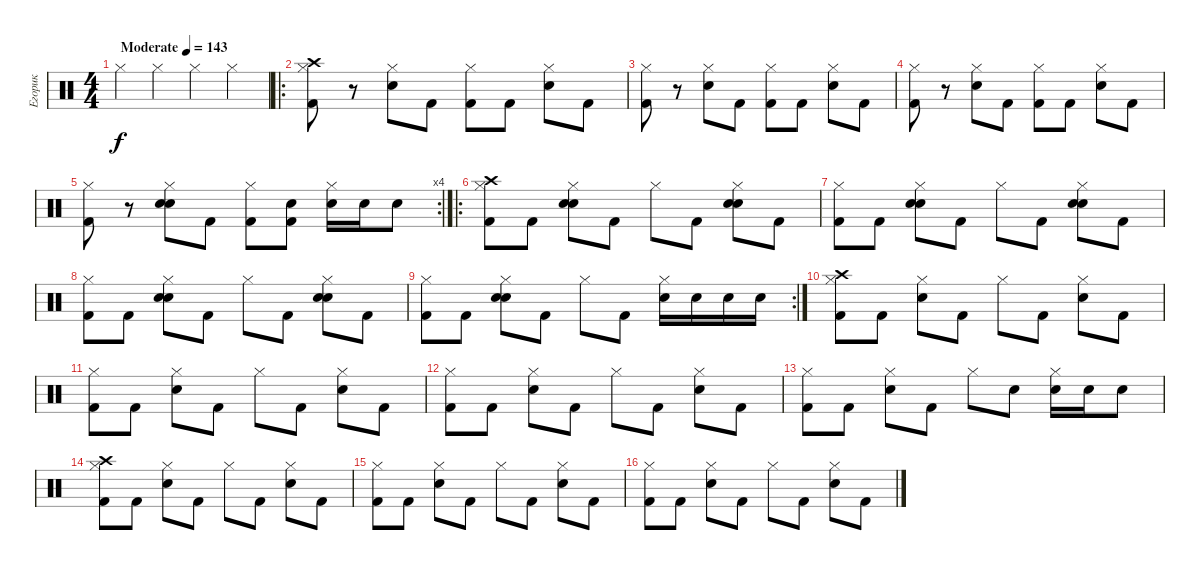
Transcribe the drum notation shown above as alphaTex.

\track ("Егорик" "Егорик") {instrument percussion}
\staff {score}
\articulation defaults
\ts (4 4)
\tempo (143 "Moderate")
\clef neutral
\ks c "Hi-Hat (closed)".4{dy f} "Hi-Hat (closed)".4 "Hi-Hat (closed)".4 "Hi-Hat (closed)".4
|
\ro
("Hi-Hat (closed)" "Crash high (hit)" "Kick (hit) 2").8 r.8 ("Hi-Hat (closed)" "Electric Snare (hit)").8 "Kick (hit) 2".8 ("Hi-Hat (closed)" "Kick (hit) 2").8 "Kick (hit) 2".8 ("Hi-Hat (closed)" "Electric Snare (hit)").8 "Kick (hit) 2".8 |
("Hi-Hat (closed)" "Kick (hit) 2").8 r.8 ("Hi-Hat (closed)" "Electric Snare (hit)").8 "Kick (hit) 2".8 ("Hi-Hat (closed)" "Kick (hit) 2").8 "Kick (hit) 2".8 ("Hi-Hat (closed)" "Electric Snare (hit)").8 "Kick (hit) 2".8 |
("Hi-Hat (closed)" "Kick (hit) 2").8 r.8 ("Hi-Hat (closed)" "Electric Snare (hit)").8 "Kick (hit) 2".8 ("Hi-Hat (closed)" "Kick (hit) 2").8 "Kick (hit) 2".8 ("Hi-Hat (closed)" "Electric Snare (hit)").8 "Kick (hit) 2".8 |
\rc 4
("Hi-Hat (closed)" "Kick (hit) 2").8 r.8 ("Hi-Hat (closed)" "Snare (hit) 2" "Electric Snare (hit)").8 "Kick (hit) 2".8 ("Hi-Hat (closed)" "Kick (hit) 2").8 ("Kick (hit) 2" "Electric Snare (hit)").8 ("Hi-Hat (closed)" "Electric Snare (hit)").16 "Electric Snare (hit)".16 "Electric Snare (hit)".8 |
\ro
("Hi-Hat (closed)" "Crash high (hit)" "Kick (hit) 2").8 "Kick (hit) 2".8 ("Hi-Hat (closed)" "Snare (hit) 2" "Electric Snare (hit)").8 "Kick (hit) 2".8 "Hi-Hat (closed)".8 "Kick (hit) 2".8 ("Hi-Hat (closed)" "Snare (hit) 2" "Electric Snare (hit)").8 "Kick (hit) 2".8 |
("Hi-Hat (closed)" "Kick (hit) 2").8 "Kick (hit) 2".8 ("Hi-Hat (closed)" "Snare (hit) 2" "Electric Snare (hit)").8 "Kick (hit) 2".8 "Hi-Hat (closed)".8 "Kick (hit) 2".8 ("Hi-Hat (closed)" "Snare (hit) 2" "Electric Snare (hit)").8 "Kick (hit) 2".8 |
("Hi-Hat (closed)" "Kick (hit) 2").8 "Kick (hit) 2".8 ("Hi-Hat (closed)" "Snare (hit) 2" "Electric Snare (hit)").8 "Kick (hit) 2".8 "Hi-Hat (closed)".8 "Kick (hit) 2".8 ("Hi-Hat (closed)" "Snare (hit) 2" "Electric Snare (hit)").8 "Kick (hit) 2".8 |
\rc 2
("Hi-Hat (closed)" "Kick (hit) 2").8 "Kick (hit) 2".8 ("Hi-Hat (closed)" "Snare (hit) 2" "Electric Snare (hit)").8 "Kick (hit) 2".8 "Hi-Hat (closed)".8 "Kick (hit) 2".8 ("Hi-Hat (closed)" "Electric Snare (hit)").16 "Electric Snare (hit)".16 "Electric Snare (hit)".16 "Electric Snare (hit)".16 |
("Hi-Hat (closed)" "Crash high (hit)" "Kick (hit) 2").8 "Kick (hit) 2".8 ("Hi-Hat (closed)" "Electric Snare (hit)").8 "Kick (hit) 2".8 "Hi-Hat (closed)".8 "Kick (hit) 2".8 ("Hi-Hat (closed)" "Electric Snare (hit)").8 "Kick (hit) 2".8 |
("Hi-Hat (closed)" "Kick (hit) 2").8 "Kick (hit) 2".8 ("Hi-Hat (closed)" "Electric Snare (hit)").8 "Kick (hit) 2".8 "Hi-Hat (closed)".8 "Kick (hit) 2".8 ("Hi-Hat (closed)" "Electric Snare (hit)").8 "Kick (hit) 2".8 |
("Hi-Hat (closed)" "Kick (hit) 2").8 "Kick (hit) 2".8 ("Hi-Hat (closed)" "Electric Snare (hit)").8 "Kick (hit) 2".8 "Hi-Hat (closed)".8 "Kick (hit) 2".8 ("Hi-Hat (closed)" "Electric Snare (hit)").8 "Kick (hit) 2".8 |
("Hi-Hat (closed)" "Kick (hit) 2").8 "Kick (hit) 2".8 ("Hi-Hat (closed)" "Electric Snare (hit)").8 "Kick (hit) 2".8 "Hi-Hat (closed)".8 "Electric Snare (hit)".8 ("Hi-Hat (closed)" "Electric Snare (hit)").16 "Electric Snare (hit)".16 "Electric Snare (hit)".8 |
("Hi-Hat (closed)" "Crash high (hit)" "Kick (hit) 2").8 "Kick (hit) 2".8 ("Hi-Hat (closed)" "Electric Snare (hit)").8 "Kick (hit) 2".8 "Hi-Hat (closed)".8 "Kick (hit) 2".8 ("Hi-Hat (closed)" "Electric Snare (hit)").8 "Kick (hit) 2".8 |
("Hi-Hat (closed)" "Kick (hit) 2").8 "Kick (hit) 2".8 ("Hi-Hat (closed)" "Electric Snare (hit)").8 "Kick (hit) 2".8 "Hi-Hat (closed)".8 "Kick (hit) 2".8 ("Hi-Hat (closed)" "Electric Snare (hit)").8 "Kick (hit) 2".8 |
("Hi-Hat (closed)" "Kick (hit) 2").8 "Kick (hit) 2".8 ("Hi-Hat (closed)" "Electric Snare (hit)").8 "Kick (hit) 2".8 "Hi-Hat (closed)".8 "Kick (hit) 2".8 ("Hi-Hat (closed)" "Electric Snare (hit)").8 "Kick (hit) 2".8
